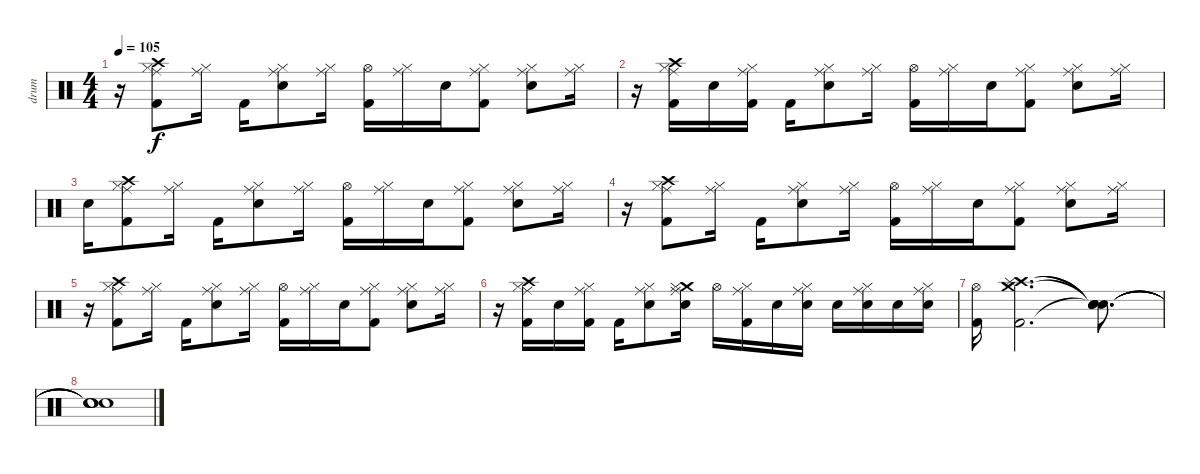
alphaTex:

\track ("drum" "drum") {instrument percussion}
\staff {score}
\articulation defaults
\ts (4 4)
\tempo 105
\clef neutral
\ks c
r.16{dy f} ("Crash high (hit)" "Hi-Hat (closed)" "Ride (middle)" "Kick (hit) 2").8 ("Hi-Hat (closed)" "Ride (middle)").16 "Kick (hit) 2".16 ("Hi-Hat (closed)" "Ride (middle)" "Electric Snare (hit)").8 ("Hi-Hat (closed)" "Ride (middle)").16 ("Hi-Hat (open)" "Kick (hit) 2").16 ("Hi-Hat (closed)" "Ride (middle)").16 "Electric Snare (hit)".16 ("Hi-Hat (closed)" "Ride (middle)" "Kick (hit) 2").8 ("Hi-Hat (closed)" "Ride (middle)" "Electric Snare (hit)").8 ("Hi-Hat (closed)" "Ride (middle)").16 |
r.16 ("Crash high (hit)" "Hi-Hat (closed)" "Ride (middle)" "Kick (hit) 2").16 "Electric Snare (hit)".16 ("Hi-Hat (closed)" "Ride (middle)" "Kick (hit) 2").16 "Kick (hit) 2".16 ("Hi-Hat (closed)" "Ride (middle)" "Electric Snare (hit)").8 ("Hi-Hat (closed)" "Ride (middle)").16 ("Hi-Hat (open)" "Kick (hit) 2").16 ("Hi-Hat (closed)" "Ride (middle)").16 "Electric Snare (hit)".16 ("Hi-Hat (closed)" "Ride (middle)" "Kick (hit) 2").8 ("Hi-Hat (closed)" "Ride (middle)" "Electric Snare (hit)").8 ("Hi-Hat (closed)" "Ride (middle)").16 |
"Electric Snare (hit)".16 ("Crash high (hit)" "Hi-Hat (closed)" "Ride (middle)" "Kick (hit) 2").8 ("Hi-Hat (closed)" "Ride (middle)").16 "Kick (hit) 2".16 ("Hi-Hat (closed)" "Ride (middle)" "Electric Snare (hit)").8 ("Hi-Hat (closed)" "Ride (middle)").16 ("Hi-Hat (open)" "Kick (hit) 2").16 ("Hi-Hat (closed)" "Ride (middle)").16 "Electric Snare (hit)".16 ("Hi-Hat (closed)" "Ride (middle)" "Kick (hit) 2").8 ("Hi-Hat (closed)" "Ride (middle)" "Electric Snare (hit)").8 ("Hi-Hat (closed)" "Ride (middle)").16 |
r.16 ("Crash high (hit)" "Hi-Hat (closed)" "Ride (middle)" "Kick (hit) 2").8 ("Hi-Hat (closed)" "Ride (middle)").16 "Kick (hit) 2".16 ("Hi-Hat (closed)" "Ride (middle)" "Electric Snare (hit)").8 ("Hi-Hat (closed)" "Ride (middle)").16 ("Hi-Hat (open)" "Kick (hit) 2").16 ("Hi-Hat (closed)" "Ride (middle)").16 "Electric Snare (hit)".16 ("Hi-Hat (closed)" "Ride (middle)" "Kick (hit) 2").8 ("Hi-Hat (closed)" "Ride (middle)" "Electric Snare (hit)").8 ("Hi-Hat (closed)" "Ride (middle)").16 |
r.16 ("Crash high (hit)" "Hi-Hat (closed)" "Ride (middle)" "Kick (hit) 2").8 ("Hi-Hat (closed)" "Ride (middle)").16 "Kick (hit) 2".16 ("Hi-Hat (closed)" "Ride (middle)" "Electric Snare (hit)").8 ("Hi-Hat (closed)" "Ride (middle)").16 ("Hi-Hat (open)" "Kick (hit) 2").16 ("Hi-Hat (closed)" "Ride (middle)").16 "Electric Snare (hit)".16 ("Hi-Hat (closed)" "Ride (middle)" "Kick (hit) 2").8 ("Hi-Hat (closed)" "Ride (middle)" "Electric Snare (hit)").8 ("Hi-Hat (closed)" "Ride (middle)").16 |
r.16 ("Crash high (hit)" "Hi-Hat (closed)" "Ride (middle)" "Kick (hit) 2").16 "Electric Snare (hit)".16 ("Hi-Hat (closed)" "Ride (middle)" "Kick (hit) 2").16 "Kick (hit) 2".16 ("Hi-Hat (closed)" "Ride (middle)" "Electric Snare (hit)").8 ("Crash medium (hit)" "Hi-Hat (closed)" "Ride (middle)" "Electric Snare (hit)").16 "Hi-Hat (open)".16 ("Hi-Hat (closed)" "Ride (middle)" "Kick (hit) 2").16 "Electric Snare (hit)".16 ("Hi-Hat (closed)" "Ride (middle)" "Electric Snare (hit)").16 "Electric Snare (hit)".16 ("Hi-Hat (closed)" "Ride (middle)" "Electric Snare (hit)").16 "Electric Snare (hit)".16 ("Hi-Hat (closed)" "Ride (middle)" "Electric Snare (hit)").16 |
("Hi-Hat (open)" "Kick (hit) 2").16 ("Crash medium (hit)" "Crash high (hit)" "Splash (hit)" "Kick (hit) 2").2{d} ("Snare (hit)"{t} "Snare (hit)"{t} "Snare (hit)"{t} "Snare (hit)"{t}).8{d} |
("Snare (hit)"{t} "Snare (hit)"{t} "Snare (hit)"{t} "Snare (hit)"{t}).1
